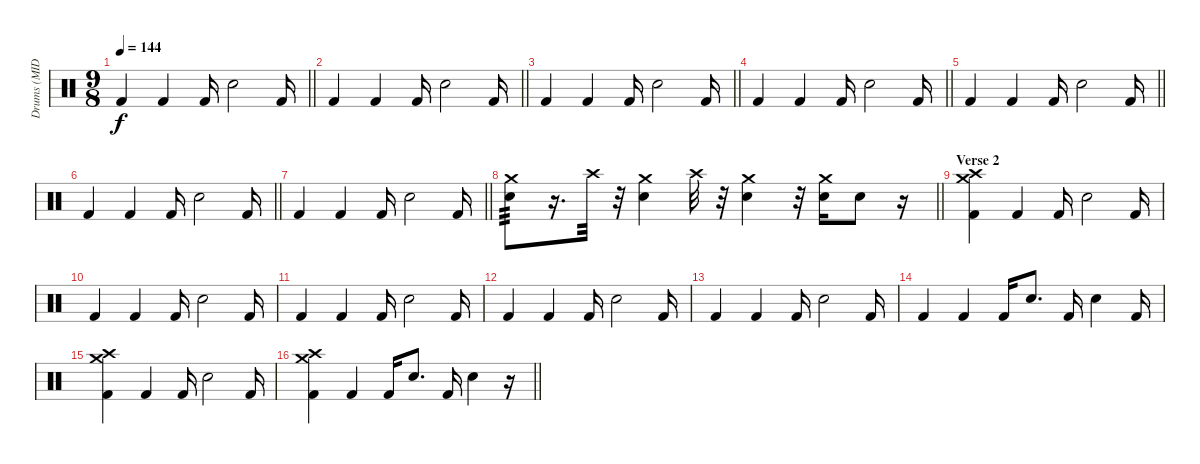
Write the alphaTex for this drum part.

\track ("Drums (MIDI!)" "Drums (MID") {instrument percussion}
\staff {score}
\articulation defaults
\ts (9 8)
\tempo 144
\clef neutral
\barLineRight lightlight
\ks c "Kick (hit) 2".4{dy f} "Kick (hit) 2".4 "Kick (hit) 2".16 "Electric Snare (hit)".2 "Kick (hit) 2".16
|
\barLineRight lightlight "Kick (hit) 2".4 "Kick (hit) 2".4 "Kick (hit) 2".16 "Electric Snare (hit)".2 "Kick (hit) 2".16
|
\barLineRight lightlight "Kick (hit) 2".4 "Kick (hit) 2".4 "Kick (hit) 2".16 "Electric Snare (hit)".2 "Kick (hit) 2".16
|
\barLineRight lightlight "Kick (hit) 2".4 "Kick (hit) 2".4 "Kick (hit) 2".16 "Electric Snare (hit)".2 "Kick (hit) 2".16
|
\barLineRight lightlight "Kick (hit) 2".4 "Kick (hit) 2".4 "Kick (hit) 2".16 "Electric Snare (hit)".2 "Kick (hit) 2".16
|
\barLineRight lightlight "Kick (hit) 2".4 "Kick (hit) 2".4 "Kick (hit) 2".16 "Electric Snare (hit)".2 "Kick (hit) 2".16
|
\barLineRight lightlight "Kick (hit) 2".4 "Kick (hit) 2".4 "Kick (hit) 2".16 "Electric Snare (hit)".2 "Kick (hit) 2".16
|
\barLineRight lightlight
("Crash medium (hit)" "Electric Snare (hit)").8{tp 3} r.16{d} "Crash high (hit)".32 r.32 ("Crash medium (hit)" "Electric Snare (hit)").4 "Crash high (hit)".32 r.32 ("Crash medium (hit)" "Electric Snare (hit)").4 r.32 ("Crash medium (hit)" "Electric Snare (hit)").16 "Electric Snare (hit)".8 r.16 |
\section ("" "Verse 2")
("Crash medium (hit)" "Crash high (hit)" "Kick (hit) 2").4 "Kick (hit) 2".4 "Kick (hit) 2".16 "Electric Snare (hit)".2 "Kick (hit) 2".16 |
"Kick (hit) 2".4 "Kick (hit) 2".4 "Kick (hit) 2".16 "Electric Snare (hit)".2 "Kick (hit) 2".16 |
"Kick (hit) 2".4 "Kick (hit) 2".4 "Kick (hit) 2".16 "Electric Snare (hit)".2 "Kick (hit) 2".16 |
"Kick (hit) 2".4 "Kick (hit) 2".4 "Kick (hit) 2".16 "Electric Snare (hit)".2 "Kick (hit) 2".16 |
"Kick (hit) 2".4 "Kick (hit) 2".4 "Kick (hit) 2".16 "Electric Snare (hit)".2 "Kick (hit) 2".16 |
"Kick (hit) 2".4 "Kick (hit) 2".4 "Kick (hit) 2".16 "Electric Snare (hit)".8{d} "Kick (hit) 2".16 "Electric Snare (hit)".4 "Kick (hit) 2".16 |
("Crash medium (hit)" "Crash high (hit)" "Kick (hit) 2").4 "Kick (hit) 2".4 "Kick (hit) 2".16 "Electric Snare (hit)".2 "Kick (hit) 2".16 |
\barLineRight lightlight
("Crash medium (hit)" "Crash high (hit)" "Kick (hit) 2").4 "Kick (hit) 2".4 "Kick (hit) 2".16 "Electric Snare (hit)".8{d} "Kick (hit) 2".16 "Electric Snare (hit)".4 r.16
